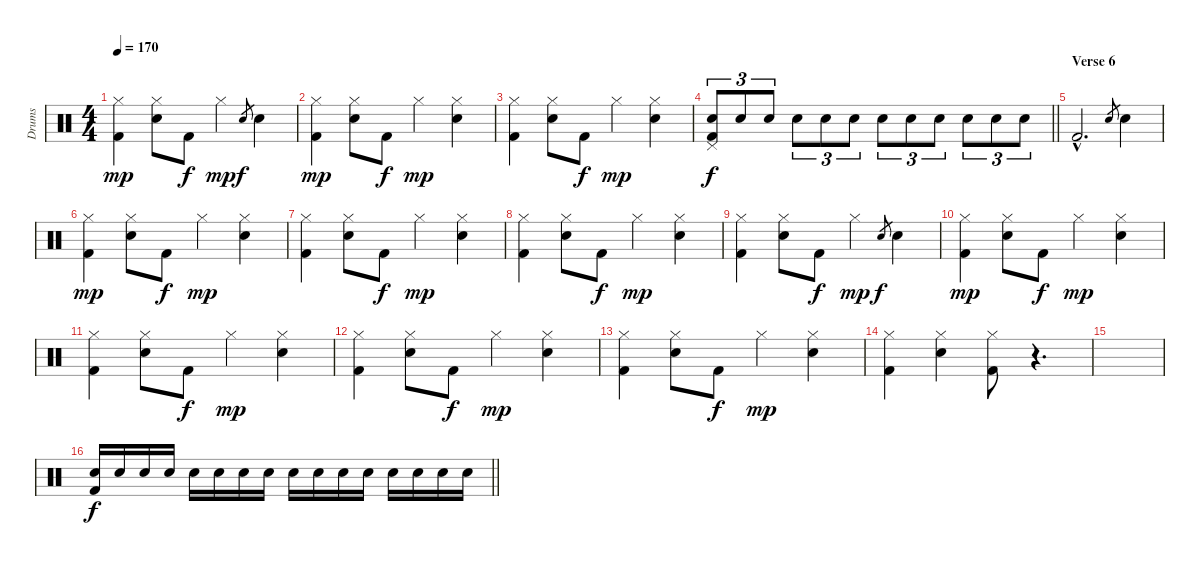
\track ("Drums" "Drums") {instrument percussion}
\staff {score}
\articulation defaults
\ts (4 4)
\tempo 170
\clef neutral
\ks c
("Hi-Hat (closed)" "Kick (hit) 2").4{dy mp} ("Hi-Hat (closed)" "Electric Snare (hit)").8 "Kick (hit) 2".8{dy f} "Hi-Hat (closed)".4{dy mp} "Electric Snare (hit)".8{gr dy f} "Electric Snare (hit)".4 |
("Hi-Hat (closed)" "Kick (hit) 2").4{dy mp} ("Hi-Hat (closed)" "Electric Snare (hit)").8 "Kick (hit) 2".8{dy f} "Hi-Hat (closed)".4{dy mp} ("Hi-Hat (closed)" "Electric Snare (hit)").4 |
("Hi-Hat (closed)" "Kick (hit) 2").4 ("Hi-Hat (closed)" "Electric Snare (hit)").8 "Kick (hit) 2".8{dy f} "Hi-Hat (closed)".4{dy mp} ("Hi-Hat (closed)" "Electric Snare (hit)").4 |
\barLineRight lightlight
("Pedal Hi-Hat (hit)" "Electric Snare (hit)" "Kick (hit) 2").8{tu (3 2) dy f} "Electric Snare (hit)".8{tu (3 2)} "Electric Snare (hit)".8{tu (3 2)} "Electric Snare (hit)".8{tu (3 2)} "Electric Snare (hit)".8{tu (3 2)} "Electric Snare (hit)".8{tu (3 2)} "Electric Snare (hit)".8{tu (3 2)} "Electric Snare (hit)".8{tu (3 2)} "Electric Snare (hit)".8{tu (3 2)} "Electric Snare (hit)".8{tu (3 2)} "Electric Snare (hit)".8{tu (3 2)} "Electric Snare (hit)".8{tu (3 2)} |
\section ("" "Verse 6 ")
"Kick (hit) 2"{hac}.2{d} "Snare (hit) 2".8{gr} "Snare (hit) 2".4 |
("Hi-Hat (closed)" "Kick (hit) 2").4{dy mp} ("Hi-Hat (closed)" "Electric Snare (hit)").8 "Kick (hit) 2".8{dy f} "Hi-Hat (closed)".4{dy mp} ("Hi-Hat (closed)" "Electric Snare (hit)").4 |
("Hi-Hat (closed)" "Kick (hit) 2").4 ("Hi-Hat (closed)" "Electric Snare (hit)").8 "Kick (hit) 2".8{dy f} "Hi-Hat (closed)".4{dy mp} ("Hi-Hat (closed)" "Electric Snare (hit)").4 |
("Hi-Hat (closed)" "Kick (hit) 2").4 ("Hi-Hat (closed)" "Electric Snare (hit)").8 "Kick (hit) 2".8{dy f} "Hi-Hat (closed)".4{dy mp} ("Hi-Hat (closed)" "Electric Snare (hit)").4 |
("Hi-Hat (closed)" "Kick (hit) 2").4 ("Hi-Hat (closed)" "Electric Snare (hit)").8 "Kick (hit) 2".8{dy f} "Hi-Hat (closed)".4{dy mp} "Electric Snare (hit)".8{gr dy f} "Electric Snare (hit)".4 |
("Hi-Hat (closed)" "Kick (hit) 2").4{dy mp} ("Hi-Hat (closed)" "Electric Snare (hit)").8 "Kick (hit) 2".8{dy f} "Hi-Hat (closed)".4{dy mp} ("Hi-Hat (closed)" "Electric Snare (hit)").4 |
("Hi-Hat (closed)" "Kick (hit) 2").4 ("Hi-Hat (closed)" "Electric Snare (hit)").8 "Kick (hit) 2".8{dy f} "Hi-Hat (closed)".4{dy mp} ("Hi-Hat (closed)" "Electric Snare (hit)").4 |
("Hi-Hat (closed)" "Kick (hit) 2").4 ("Hi-Hat (closed)" "Electric Snare (hit)").8 "Kick (hit) 2".8{dy f} "Hi-Hat (closed)".4{dy mp} ("Hi-Hat (closed)" "Electric Snare (hit)").4 |
("Hi-Hat (closed)" "Kick (hit) 2").4 ("Hi-Hat (closed)" "Electric Snare (hit)").8 "Kick (hit) 2".8{dy f} "Hi-Hat (closed)".4{dy mp} ("Hi-Hat (closed)" "Electric Snare (hit)").4 |
("Hi-Hat (closed)" "Kick (hit) 2").4 ("Hi-Hat (closed)" "Electric Snare (hit)").4 ("Hi-Hat (closed)" "Kick (hit) 2").8 r.4{d} |
|
\barLineRight lightlight
("Electric Snare (hit)" "Kick (hit) 2").16{dy f} "Electric Snare (hit)".16 "Electric Snare (hit)".16 "Electric Snare (hit)".16 "Electric Snare (hit)".16 "Electric Snare (hit)".16 "Electric Snare (hit)".16 "Electric Snare (hit)".16 "Electric Snare (hit)".16 "Electric Snare (hit)".16 "Electric Snare (hit)".16 "Electric Snare (hit)".16 "Electric Snare (hit)".16 "Electric Snare (hit)".16 "Electric Snare (hit)".16 "Electric Snare (hit)".16
